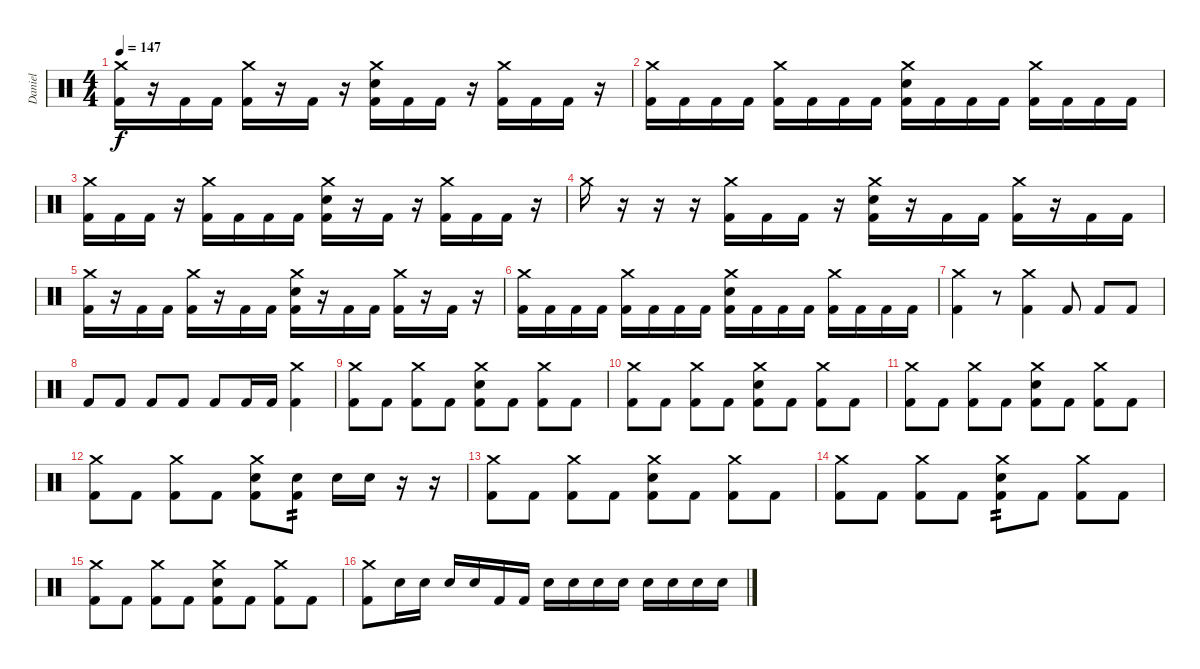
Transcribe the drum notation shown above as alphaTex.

\track ("Daniel" "Daniel") {instrument percussion}
\staff {score}
\articulation defaults
\ts (4 4)
\tempo 147
\clef neutral
\ks c
("Crash medium (hit)" "Kick (hit) 2").16{dy f} r.16 "Kick (hit) 2".16 "Kick (hit) 2".16 ("Crash medium (hit)" "Kick (hit) 2").16 r.16 "Kick (hit) 2".16 r.16 ("Crash medium (hit)" "Electric Snare (hit)" "Kick (hit) 2").16 "Kick (hit) 2".16 "Kick (hit) 2".16 r.16 ("Crash medium (hit)" "Kick (hit) 2").16 "Kick (hit) 2".16 "Kick (hit) 2".16 r.16 |
("Crash medium (hit)" "Kick (hit) 2").16 "Kick (hit) 2".16 "Kick (hit) 2".16 "Kick (hit) 2".16 ("Crash medium (hit)" "Kick (hit) 2").16 "Kick (hit) 2".16 "Kick (hit) 2".16 "Kick (hit) 2".16 ("Crash medium (hit)" "Electric Snare (hit)" "Kick (hit) 2").16 "Kick (hit) 2".16 "Kick (hit) 2".16 "Kick (hit) 2".16 ("Crash medium (hit)" "Kick (hit) 2").16 "Kick (hit) 2".16 "Kick (hit) 2".16 "Kick (hit) 2".16 |
("Crash medium (hit)" "Kick (hit) 2").16 "Kick (hit) 2".16 "Kick (hit) 2".16 r.16 ("Crash medium (hit)" "Kick (hit) 2").16 "Kick (hit) 2".16 "Kick (hit) 2".16 "Kick (hit) 2".16 ("Crash medium (hit)" "Electric Snare (hit)" "Kick (hit) 2").16 r.16 "Kick (hit) 2".16 r.16 ("Crash medium (hit)" "Kick (hit) 2").16 "Kick (hit) 2".16 "Kick (hit) 2".16 r.16 |
"Crash medium (hit)".16 r.16 r.16 r.16 ("Crash medium (hit)" "Kick (hit) 2").16 "Kick (hit) 2".16 "Kick (hit) 2".16 r.16 ("Crash medium (hit)" "Electric Snare (hit)" "Kick (hit) 2").16 r.16 "Kick (hit) 2".16 "Kick (hit) 2".16 ("Crash medium (hit)" "Kick (hit) 2").16 r.16 "Kick (hit) 2".16 "Kick (hit) 2".16 |
("Crash medium (hit)" "Kick (hit) 2").16 r.16 "Kick (hit) 2".16 "Kick (hit) 2".16 ("Crash medium (hit)" "Kick (hit) 2").16 r.16 "Kick (hit) 2".16 "Kick (hit) 2".16 ("Crash medium (hit)" "Electric Snare (hit)" "Kick (hit) 2").16 r.16 "Kick (hit) 2".16 "Kick (hit) 2".16 ("Crash medium (hit)" "Kick (hit) 2").16 r.16 "Kick (hit) 2".16 r.16 |
("Crash medium (hit)" "Kick (hit) 2").16 "Kick (hit) 2".16 "Kick (hit) 2".16 "Kick (hit) 2".16 ("Crash medium (hit)" "Kick (hit) 2").16 "Kick (hit) 2".16 "Kick (hit) 2".16 "Kick (hit) 2".16 ("Crash medium (hit)" "Electric Snare (hit)" "Kick (hit) 2").16 "Kick (hit) 2".16 "Kick (hit) 2".16 "Kick (hit) 2".16 ("Crash medium (hit)" "Kick (hit) 2").16 "Kick (hit) 2".16 "Kick (hit) 2".16 "Kick (hit) 2".16 |
("Crash medium (hit)" "Kick (hit) 2").4 r.8 ("Crash medium (hit)" "Kick (hit) 2").4 "Kick (hit) 2".8 "Kick (hit) 2".8 "Kick (hit) 2".8 |
"Kick (hit) 2".8 "Kick (hit) 2".8 "Kick (hit) 2".8 "Kick (hit) 2".8 "Kick (hit) 2".8 "Kick (hit) 2".16 "Kick (hit) 2".16 ("Crash medium (hit)" "Kick (hit) 2").4 |
("Crash medium (hit)" "Kick (hit) 2").8 "Kick (hit) 2".8 ("Crash medium (hit)" "Kick (hit) 2").8 "Kick (hit) 2".8 ("Crash medium (hit)" "Electric Snare (hit)" "Kick (hit) 2").8 "Kick (hit) 2".8 ("Crash medium (hit)" "Kick (hit) 2").8 "Kick (hit) 2".8 |
("Crash medium (hit)" "Kick (hit) 2").8 "Kick (hit) 2".8 ("Crash medium (hit)" "Kick (hit) 2").8 "Kick (hit) 2".8 ("Crash medium (hit)" "Electric Snare (hit)" "Kick (hit) 2").8 "Kick (hit) 2".8 ("Crash medium (hit)" "Kick (hit) 2").8 "Kick (hit) 2".8 |
("Crash medium (hit)" "Kick (hit) 2").8 "Kick (hit) 2".8 ("Crash medium (hit)" "Kick (hit) 2").8 "Kick (hit) 2".8 ("Crash medium (hit)" "Electric Snare (hit)" "Kick (hit) 2").8 "Kick (hit) 2".8 ("Crash medium (hit)" "Kick (hit) 2").8 "Kick (hit) 2".8 |
("Crash medium (hit)" "Kick (hit) 2").8 "Kick (hit) 2".8 ("Crash medium (hit)" "Kick (hit) 2").8 "Kick (hit) 2".8 ("Crash medium (hit)" "Electric Snare (hit)" "Kick (hit) 2").8 ("Electric Snare (hit)" "Kick (hit) 2").8{tp 2} "Electric Snare (hit)".16 "Electric Snare (hit)".16 r.16 r.16 |
("Crash medium (hit)" "Kick (hit) 2").8 "Kick (hit) 2".8 ("Crash medium (hit)" "Kick (hit) 2").8 "Kick (hit) 2".8 ("Crash medium (hit)" "Electric Snare (hit)" "Kick (hit) 2").8 "Kick (hit) 2".8 ("Crash medium (hit)" "Kick (hit) 2").8 "Kick (hit) 2".8 |
("Crash medium (hit)" "Kick (hit) 2").8 "Kick (hit) 2".8 ("Crash medium (hit)" "Kick (hit) 2").8 "Kick (hit) 2".8 ("Crash medium (hit)" "Electric Snare (hit)" "Kick (hit) 2").8{tp 2} "Kick (hit) 2".8 ("Crash medium (hit)" "Kick (hit) 2").8 "Kick (hit) 2".8 |
("Crash medium (hit)" "Kick (hit) 2").8 "Kick (hit) 2".8 ("Crash medium (hit)" "Kick (hit) 2").8 "Kick (hit) 2".8 ("Crash medium (hit)" "Electric Snare (hit)" "Kick (hit) 2").8 "Kick (hit) 2".8 ("Crash medium (hit)" "Kick (hit) 2").8 "Kick (hit) 2".8 |
("Crash medium (hit)" "Kick (hit) 2").8 "Electric Snare (hit)".16 "Electric Snare (hit)".16 "Electric Snare (hit)".16 "Electric Snare (hit)".16 "Kick (hit) 2".16 "Kick (hit) 2".16 "Electric Snare (hit)".16 "Electric Snare (hit)".16 "Electric Snare (hit)".16 "Electric Snare (hit)".16 "Electric Snare (hit)".16 "Electric Snare (hit)".16 "Electric Snare (hit)".16 "Electric Snare (hit)".16
